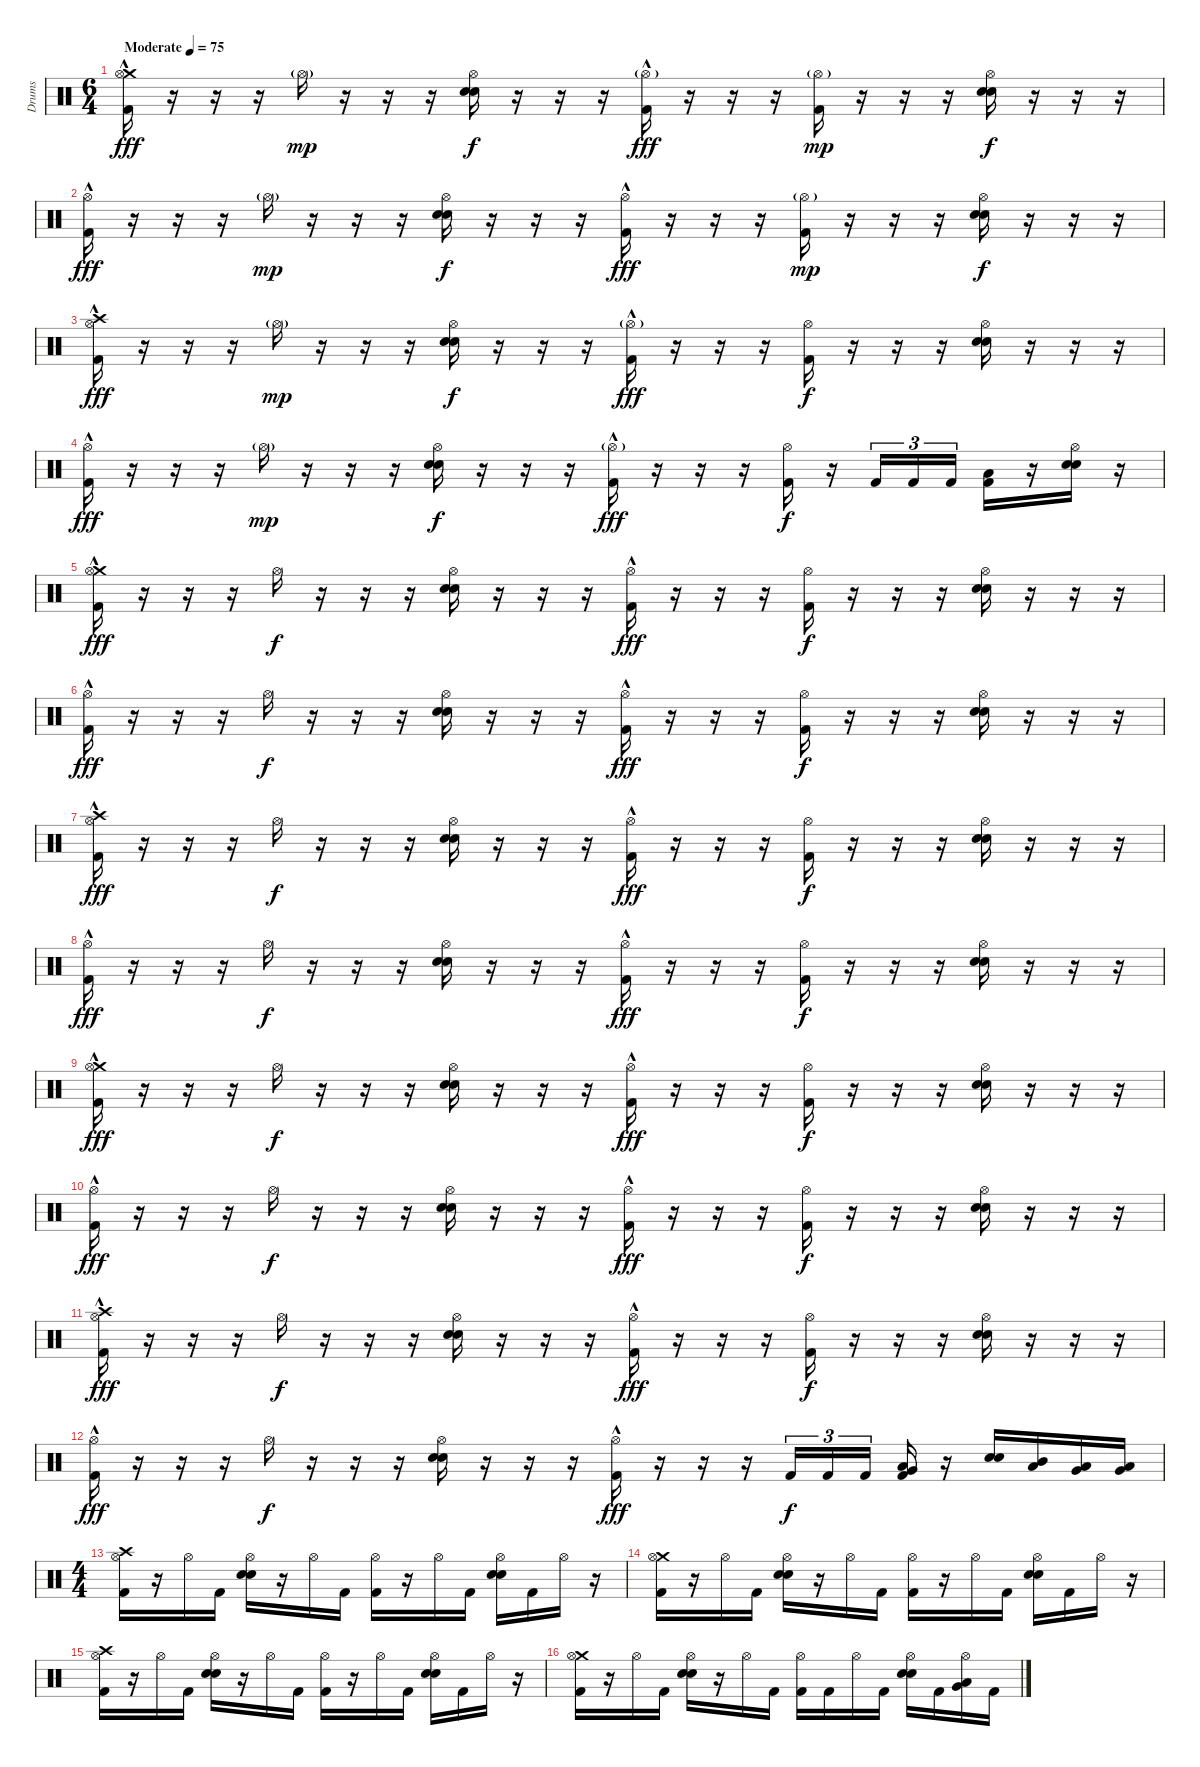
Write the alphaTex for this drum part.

\track ("Drums" "Drums") {instrument percussion}
\staff {score}
\articulation defaults
\ts (6 4)
\tempo (75 "Moderate")
\clef neutral
\ks c
("Crash medium (hit)" "Hi-Hat (open)" "Kick (hit) 2"{hac}).16{dy fff} r.16 r.16 r.16 "Hi-Hat (open)"{g}.16{dy mp} r.16 r.16 r.16 ("Hi-Hat (open)" "Electric Snare (hit)" "Snare (hit) 2").16{dy f} r.16 r.16 r.16 ("Hi-Hat (open)"{g} "Kick (hit) 2"{hac}).16{dy fff} r.16 r.16 r.16 ("Hi-Hat (open)"{g} "Kick (hit) 2").16{dy mp} r.16 r.16 r.16 ("Hi-Hat (open)" "Electric Snare (hit)" "Snare (hit) 2").16{dy f} r.16 r.16 r.16 |
("Hi-Hat (open)" "Kick (hit) 2"{hac}).16{dy fff} r.16 r.16 r.16 "Hi-Hat (open)"{g}.16{dy mp} r.16 r.16 r.16 ("Hi-Hat (open)" "Electric Snare (hit)" "Snare (hit) 2").16{dy f} r.16 r.16 r.16 ("Hi-Hat (open)" "Kick (hit) 2"{hac}).16{dy fff} r.16 r.16 r.16 ("Hi-Hat (open)"{g} "Kick (hit) 2").16{dy mp} r.16 r.16 r.16 ("Hi-Hat (open)" "Electric Snare (hit)" "Snare (hit) 2").16{dy f} r.16 r.16 r.16 |
("Crash high (hit)" "Hi-Hat (open)" "Kick (hit) 2"{hac}).16{dy fff} r.16 r.16 r.16 "Hi-Hat (open)"{g}.16{dy mp} r.16 r.16 r.16 ("Hi-Hat (open)" "Electric Snare (hit)" "Snare (hit) 2").16{dy f} r.16 r.16 r.16 ("Hi-Hat (open)"{g} "Kick (hit) 2"{hac}).16{dy fff} r.16 r.16 r.16 ("Hi-Hat (open)" "Kick (hit) 2").16{dy f} r.16 r.16 r.16 ("Hi-Hat (open)" "Electric Snare (hit)" "Snare (hit) 2").16 r.16 r.16 r.16 |
("Hi-Hat (open)" "Kick (hit) 2"{hac}).16{dy fff} r.16 r.16 r.16 "Hi-Hat (open)"{g}.16{dy mp} r.16 r.16 r.16 ("Hi-Hat (open)" "Electric Snare (hit)" "Snare (hit) 2").16{dy f} r.16 r.16 r.16 ("Hi-Hat (open)"{g} "Kick (hit) 2"{hac}).16{dy fff} r.16 r.16 r.16 ("Hi-Hat (open)" "Kick (hit) 2").16{dy f} r.16 "Kick (hit) 2".16{tu (3 2)} "Kick (hit) 2".16{tu (3 2)} "Kick (hit) 2".16{tu (3 2) beam splitsecondary} ("Low Floor Tom (hit)" "Kick (hit) 2").16 r.16 ("Hi-Hat (open)" "Electric Snare (hit)" "Snare (hit) 2").16 r.16 |
("Crash medium (hit)" "Hi-Hat (open)" "Kick (hit) 2"{hac}).16{dy fff} r.16 r.16 r.16 "Hi-Hat (open)".16{dy f} r.16 r.16 r.16 ("Hi-Hat (open)" "Electric Snare (hit)" "Snare (hit) 2").16 r.16 r.16 r.16 ("Hi-Hat (open)" "Kick (hit) 2"{hac}).16{dy fff} r.16 r.16 r.16 ("Hi-Hat (open)" "Kick (hit) 2").16{dy f} r.16 r.16 r.16 ("Hi-Hat (open)" "Electric Snare (hit)" "Snare (hit) 2").16 r.16 r.16 r.16 |
("Hi-Hat (open)" "Kick (hit) 2"{hac}).16{dy fff} r.16 r.16 r.16 "Hi-Hat (open)".16{dy f} r.16 r.16 r.16 ("Hi-Hat (open)" "Electric Snare (hit)" "Snare (hit) 2").16 r.16 r.16 r.16 ("Hi-Hat (open)" "Kick (hit) 2"{hac}).16{dy fff} r.16 r.16 r.16 ("Hi-Hat (open)" "Kick (hit) 2").16{dy f} r.16 r.16 r.16 ("Hi-Hat (open)" "Electric Snare (hit)" "Snare (hit) 2").16 r.16 r.16 r.16 |
("Crash high (hit)" "Hi-Hat (open)" "Kick (hit) 2"{hac}).16{dy fff} r.16 r.16 r.16 "Hi-Hat (open)".16{dy f} r.16 r.16 r.16 ("Hi-Hat (open)" "Electric Snare (hit)" "Snare (hit) 2").16 r.16 r.16 r.16 ("Hi-Hat (open)" "Kick (hit) 2"{hac}).16{dy fff} r.16 r.16 r.16 ("Hi-Hat (open)" "Kick (hit) 2").16{dy f} r.16 r.16 r.16 ("Hi-Hat (open)" "Electric Snare (hit)" "Snare (hit) 2").16 r.16 r.16 r.16 |
("Hi-Hat (open)" "Kick (hit) 2"{hac}).16{dy fff} r.16 r.16 r.16 "Hi-Hat (open)".16{dy f} r.16 r.16 r.16 ("Hi-Hat (open)" "Electric Snare (hit)" "Snare (hit) 2").16 r.16 r.16 r.16 ("Hi-Hat (open)" "Kick (hit) 2"{hac}).16{dy fff} r.16 r.16 r.16 ("Hi-Hat (open)" "Kick (hit) 2").16{dy f} r.16 r.16 r.16 ("Hi-Hat (open)" "Electric Snare (hit)" "Snare (hit) 2").16 r.16 r.16 r.16 |
("Crash medium (hit)" "Hi-Hat (open)" "Kick (hit) 2"{hac}).16{dy fff} r.16 r.16 r.16 "Hi-Hat (open)".16{dy f} r.16 r.16 r.16 ("Hi-Hat (open)" "Electric Snare (hit)" "Snare (hit) 2").16 r.16 r.16 r.16 ("Hi-Hat (open)" "Kick (hit) 2"{hac}).16{dy fff} r.16 r.16 r.16 ("Hi-Hat (open)" "Kick (hit) 2").16{dy f} r.16 r.16 r.16 ("Hi-Hat (open)" "Electric Snare (hit)" "Snare (hit) 2").16 r.16 r.16 r.16 |
("Hi-Hat (open)" "Kick (hit) 2"{hac}).16{dy fff} r.16 r.16 r.16 "Hi-Hat (open)".16{dy f} r.16 r.16 r.16 ("Hi-Hat (open)" "Electric Snare (hit)" "Snare (hit) 2").16 r.16 r.16 r.16 ("Hi-Hat (open)" "Kick (hit) 2"{hac}).16{dy fff} r.16 r.16 r.16 ("Hi-Hat (open)" "Kick (hit) 2").16{dy f} r.16 r.16 r.16 ("Hi-Hat (open)" "Electric Snare (hit)" "Snare (hit) 2").16 r.16 r.16 r.16 |
("Crash high (hit)" "Hi-Hat (open)" "Kick (hit) 2"{hac}).16{dy fff} r.16 r.16 r.16 "Hi-Hat (open)".16{dy f} r.16 r.16 r.16 ("Hi-Hat (open)" "Electric Snare (hit)" "Snare (hit) 2").16 r.16 r.16 r.16 ("Hi-Hat (open)" "Kick (hit) 2"{hac}).16{dy fff} r.16 r.16 r.16 ("Hi-Hat (open)" "Kick (hit) 2").16{dy f} r.16 r.16 r.16 ("Hi-Hat (open)" "Electric Snare (hit)" "Snare (hit) 2").16 r.16 r.16 r.16 |
("Hi-Hat (open)" "Kick (hit) 2"{hac}).16{dy fff} r.16 r.16 r.16 "Hi-Hat (open)".16{dy f} r.16 r.16 r.16 ("Hi-Hat (open)" "Electric Snare (hit)" "Snare (hit) 2").16 r.16 r.16 r.16 ("Hi-Hat (open)" "Kick (hit) 2"{hac}).16{dy fff} r.16 r.16 r.16 "Kick (hit) 2".16{tu (3 2) dy f} "Kick (hit) 2".16{tu (3 2)} "Kick (hit) 2".16{tu (3 2) beam splitsecondary} ("Low Floor Tom (hit)" "Very Low Tom (hit)" "Kick (hit) 2").16 r.16 ("Electric Snare (hit)" "Snare (hit) 2").16 ("Low Tom (hit)" "Mid Tom (hit)").16 ("Very Low Tom (hit)" "Low Tom (hit)").16 ("Low Floor Tom (hit)" "Very Low Tom (hit)").16 |
\ts (4 4)
("Crash high (hit)" "Hi-Hat (open)" "Kick (hit) 2").16 r.16 "Hi-Hat (open)".16 "Kick (hit) 2".16 ("Hi-Hat (open)" "Electric Snare (hit)" "Snare (hit) 2").16 r.16 "Hi-Hat (open)".16 "Kick (hit) 2".16 ("Hi-Hat (open)" "Kick (hit) 2").16 r.16 "Hi-Hat (open)".16 "Kick (hit) 2".16 ("Hi-Hat (open)" "Electric Snare (hit)" "Snare (hit) 2").16 "Kick (hit) 2".16 "Hi-Hat (open)".16 r.16 |
("Crash medium (hit)" "Hi-Hat (open)" "Kick (hit) 2").16 r.16 "Hi-Hat (open)".16 "Kick (hit) 2".16 ("Hi-Hat (open)" "Electric Snare (hit)" "Snare (hit) 2").16 r.16 "Hi-Hat (open)".16 "Kick (hit) 2".16 ("Hi-Hat (open)" "Kick (hit) 2").16 r.16 "Hi-Hat (open)".16 "Kick (hit) 2".16 ("Hi-Hat (open)" "Electric Snare (hit)" "Snare (hit) 2").16 "Kick (hit) 2".16 "Hi-Hat (open)".16 r.16 |
("Crash high (hit)" "Hi-Hat (open)" "Kick (hit) 2").16 r.16 "Hi-Hat (open)".16 "Kick (hit) 2".16 ("Hi-Hat (open)" "Electric Snare (hit)" "Snare (hit) 2").16 r.16 "Hi-Hat (open)".16 "Kick (hit) 2".16 ("Hi-Hat (open)" "Kick (hit) 2").16 r.16 "Hi-Hat (open)".16 "Kick (hit) 2".16 ("Hi-Hat (open)" "Electric Snare (hit)" "Snare (hit) 2").16 "Kick (hit) 2".16 "Hi-Hat (open)".16 r.16 |
("Crash medium (hit)" "Hi-Hat (open)" "Kick (hit) 2").16 r.16 "Hi-Hat (open)".16 "Kick (hit) 2".16 ("Hi-Hat (open)" "Electric Snare (hit)" "Snare (hit) 2").16 r.16 "Hi-Hat (open)".16 "Kick (hit) 2".16 ("Hi-Hat (open)" "Kick (hit) 2").16 "Kick (hit) 2".16 "Hi-Hat (open)".16 "Kick (hit) 2".16 ("Hi-Hat (open)" "Electric Snare (hit)" "Snare (hit) 2").16 "Kick (hit) 2".16 ("Hi-Hat (open)" "Very Low Tom (hit)" "Low Floor Tom (hit)").16 "Kick (hit) 2".16
